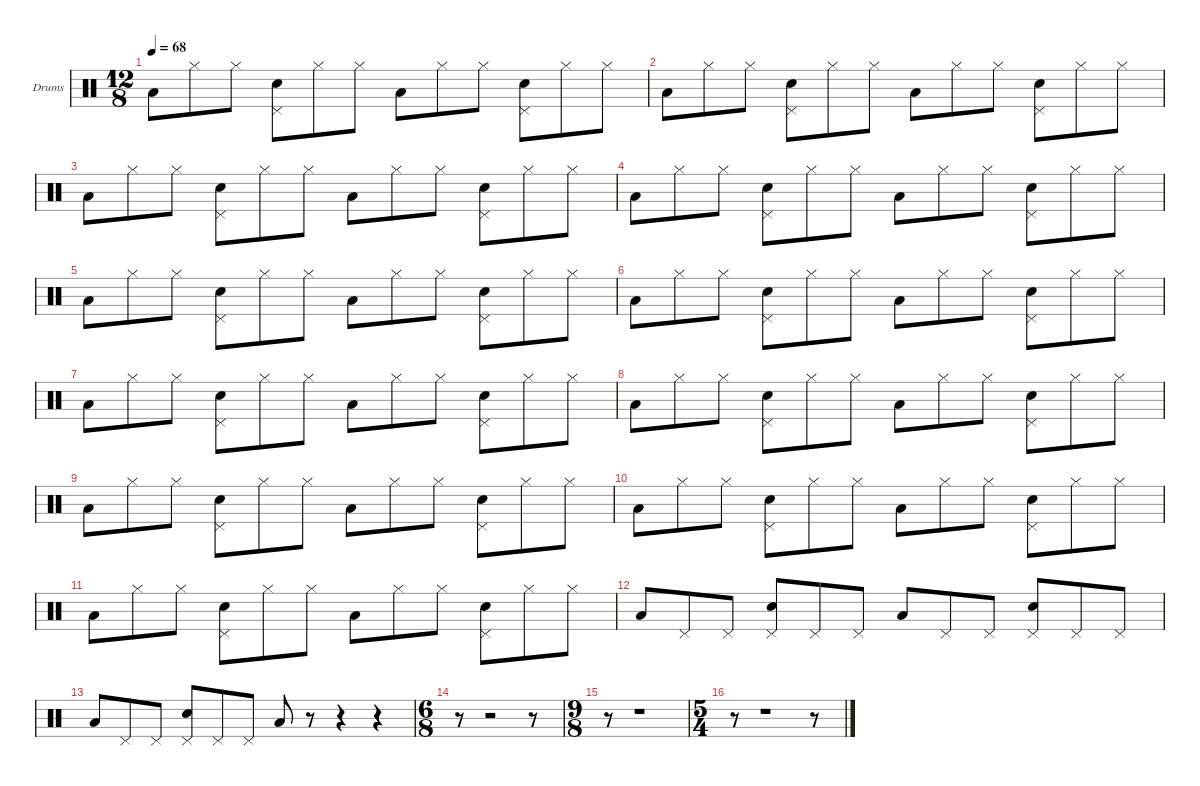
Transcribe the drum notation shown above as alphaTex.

\hideDynamics
\bracketExtendMode nobrackets
\firstSystemTrackNameOrientation horizontal
\otherSystemsTrackNameOrientation horizontal
\track ("Drums" "Drums") {instrument percussion}
\staff {score}
\articulation defaults
\ts (12 8)
\tempo 68
\clef neutral
\ks c "Low Tom (hit)".8{dy f} "Hi-Hat (closed)".8 "Hi-Hat (closed)".8
("Pedal Hi-Hat (hit)" "Snare (hit) 2").8 "Hi-Hat (closed)".8 "Hi-Hat (closed)".8 "Low Tom (hit)".8 "Hi-Hat (closed)".8 "Hi-Hat (closed)".8 ("Pedal Hi-Hat (hit)" "Snare (hit) 2").8 "Hi-Hat (closed)".8 "Hi-Hat (closed)".8 |
"Low Tom (hit)".8 "Hi-Hat (closed)".8 "Hi-Hat (closed)".8 ("Pedal Hi-Hat (hit)" "Snare (hit) 2").8 "Hi-Hat (closed)".8 "Hi-Hat (closed)".8 "Low Tom (hit)".8 "Hi-Hat (closed)".8 "Hi-Hat (closed)".8 ("Pedal Hi-Hat (hit)" "Snare (hit) 2").8 "Hi-Hat (closed)".8 "Hi-Hat (closed)".8 |
"Low Tom (hit)".8 "Hi-Hat (closed)".8 "Hi-Hat (closed)".8 ("Pedal Hi-Hat (hit)" "Snare (hit) 2").8 "Hi-Hat (closed)".8 "Hi-Hat (closed)".8 "Low Tom (hit)".8 "Hi-Hat (closed)".8 "Hi-Hat (closed)".8 ("Pedal Hi-Hat (hit)" "Snare (hit) 2").8 "Hi-Hat (closed)".8 "Hi-Hat (closed)".8 |
"Low Tom (hit)".8 "Hi-Hat (closed)".8 "Hi-Hat (closed)".8 ("Pedal Hi-Hat (hit)" "Snare (hit) 2").8 "Hi-Hat (closed)".8 "Hi-Hat (closed)".8 "Low Tom (hit)".8 "Hi-Hat (closed)".8 "Hi-Hat (closed)".8 ("Pedal Hi-Hat (hit)" "Snare (hit) 2").8 "Hi-Hat (closed)".8 "Hi-Hat (closed)".8 |
"Low Tom (hit)".8 "Hi-Hat (closed)".8 "Hi-Hat (closed)".8 ("Pedal Hi-Hat (hit)" "Snare (hit) 2").8 "Hi-Hat (closed)".8 "Hi-Hat (closed)".8 "Low Tom (hit)".8 "Hi-Hat (closed)".8 "Hi-Hat (closed)".8 ("Pedal Hi-Hat (hit)" "Snare (hit) 2").8 "Hi-Hat (closed)".8 "Hi-Hat (closed)".8 |
"Low Tom (hit)".8 "Hi-Hat (closed)".8 "Hi-Hat (closed)".8 ("Pedal Hi-Hat (hit)" "Snare (hit) 2").8 "Hi-Hat (closed)".8 "Hi-Hat (closed)".8 "Low Tom (hit)".8 "Hi-Hat (closed)".8 "Hi-Hat (closed)".8 ("Pedal Hi-Hat (hit)" "Snare (hit) 2").8 "Hi-Hat (closed)".8 "Hi-Hat (closed)".8 |
"Low Tom (hit)".8 "Hi-Hat (closed)".8 "Hi-Hat (closed)".8 ("Pedal Hi-Hat (hit)" "Snare (hit) 2").8 "Hi-Hat (closed)".8 "Hi-Hat (closed)".8 "Low Tom (hit)".8 "Hi-Hat (closed)".8 "Hi-Hat (closed)".8 ("Pedal Hi-Hat (hit)" "Snare (hit) 2").8 "Hi-Hat (closed)".8 "Hi-Hat (closed)".8 |
"Low Tom (hit)".8 "Hi-Hat (closed)".8 "Hi-Hat (closed)".8 ("Pedal Hi-Hat (hit)" "Snare (hit) 2").8 "Hi-Hat (closed)".8 "Hi-Hat (closed)".8 "Low Tom (hit)".8 "Hi-Hat (closed)".8 "Hi-Hat (closed)".8 ("Pedal Hi-Hat (hit)" "Snare (hit) 2").8 "Hi-Hat (closed)".8 "Hi-Hat (closed)".8 |
"Low Tom (hit)".8 "Hi-Hat (closed)".8 "Hi-Hat (closed)".8 ("Pedal Hi-Hat (hit)" "Snare (hit) 2").8 "Hi-Hat (closed)".8 "Hi-Hat (closed)".8 "Low Tom (hit)".8 "Hi-Hat (closed)".8 "Hi-Hat (closed)".8 ("Pedal Hi-Hat (hit)" "Snare (hit) 2").8 "Hi-Hat (closed)".8 "Hi-Hat (closed)".8 |
"Low Tom (hit)".8 "Hi-Hat (closed)".8 "Hi-Hat (closed)".8 ("Pedal Hi-Hat (hit)" "Snare (hit) 2").8 "Hi-Hat (closed)".8 "Hi-Hat (closed)".8 "Low Tom (hit)".8 "Hi-Hat (closed)".8 "Hi-Hat (closed)".8 ("Pedal Hi-Hat (hit)" "Snare (hit) 2").8 "Hi-Hat (closed)".8 "Hi-Hat (closed)".8 |
"Low Tom (hit)".8 "Hi-Hat (closed)".8 "Hi-Hat (closed)".8 ("Pedal Hi-Hat (hit)" "Snare (hit) 2").8 "Hi-Hat (closed)".8 "Hi-Hat (closed)".8 "Low Tom (hit)".8 "Hi-Hat (closed)".8 "Hi-Hat (closed)".8 ("Pedal Hi-Hat (hit)" "Snare (hit) 2").8 "Hi-Hat (closed)".8 "Hi-Hat (closed)".8 |
"Low Tom (hit)".8 "Pedal Hi-Hat (hit)".8 "Pedal Hi-Hat (hit)".8 ("Pedal Hi-Hat (hit)" "Snare (hit) 2").8 "Pedal Hi-Hat (hit)".8 "Pedal Hi-Hat (hit)".8 "Low Tom (hit)".8 "Pedal Hi-Hat (hit)".8 "Pedal Hi-Hat (hit)".8 ("Pedal Hi-Hat (hit)" "Snare (hit) 2").8 "Pedal Hi-Hat (hit)".8 "Pedal Hi-Hat (hit)".8 |
"Low Tom (hit)".8 "Pedal Hi-Hat (hit)".8 "Pedal Hi-Hat (hit)".8 ("Pedal Hi-Hat (hit)" "Snare (hit) 2").8 "Pedal Hi-Hat (hit)".8 "Pedal Hi-Hat (hit)".8 "Low Tom (hit)".8 r.8 r.4 r.4 |
\ts (6 8)
r.8 r.2 r.8 |
\ts (9 8)
r.8 r.1 |
\ts (5 4)
r.8 r.1 r.8
